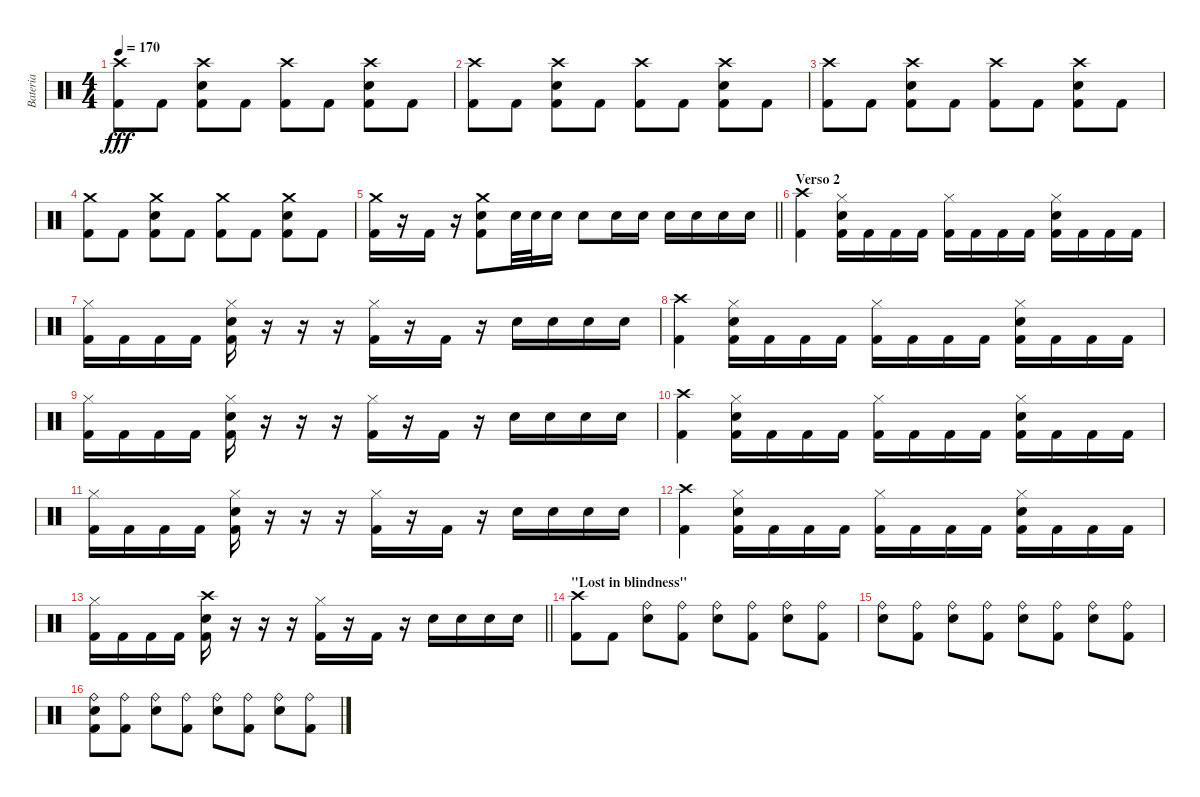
\track ("Bateria" "Bateria") {instrument percussion}
\staff {score}
\articulation defaults
\ts (4 4)
\tempo 170
\clef neutral
\ks c
("Crash high (hit)" "Kick (hit) 2").8{dy fff} "Kick (hit) 2".8 ("Crash high (hit)" "Electric Snare (hit)" "Kick (hit) 2").8 "Kick (hit) 2".8 ("Crash high (hit)" "Kick (hit) 2").8 "Kick (hit) 2".8 ("Crash high (hit)" "Electric Snare (hit)" "Kick (hit) 2").8 "Kick (hit) 2".8 |
("Crash high (hit)" "Kick (hit) 2").8 "Kick (hit) 2".8 ("Crash high (hit)" "Electric Snare (hit)" "Kick (hit) 2").8 "Kick (hit) 2".8 ("Crash high (hit)" "Kick (hit) 2").8 "Kick (hit) 2".8 ("Crash high (hit)" "Electric Snare (hit)" "Kick (hit) 2").8 "Kick (hit) 2".8 |
("Crash high (hit)" "Kick (hit) 2").8 "Kick (hit) 2".8 ("Crash high (hit)" "Electric Snare (hit)" "Kick (hit) 2").8 "Kick (hit) 2".8 ("Crash high (hit)" "Kick (hit) 2").8 "Kick (hit) 2".8 ("Crash high (hit)" "Electric Snare (hit)" "Kick (hit) 2").8 "Kick (hit) 2".8 |
("Crash medium (hit)" "Kick (hit) 2").8 "Kick (hit) 2".8 ("Crash medium (hit)" "Electric Snare (hit)" "Kick (hit) 2").8 "Kick (hit) 2".8 ("Crash medium (hit)" "Kick (hit) 2").8 "Kick (hit) 2".8 ("Crash medium (hit)" "Electric Snare (hit)" "Kick (hit) 2").8 "Kick (hit) 2".8 |
\barLineRight lightlight
("Crash medium (hit)" "Kick (hit) 2").16 r.16 "Kick (hit) 2".16 r.16 ("Crash medium (hit)" "Electric Snare (hit)" "Kick (hit) 2").8 "Electric Snare (hit)".32 "Electric Snare (hit)".32 "Electric Snare (hit)".16 "Electric Snare (hit)".8 "Electric Snare (hit)".16 "Electric Snare (hit)".16 "Electric Snare (hit)".16 "Electric Snare (hit)".16 "Electric Snare (hit)".16 "Electric Snare (hit)".16 |
\section ("" "Verso 2")
("Crash high (hit)" "Kick (hit) 2").4 ("Hi-Hat (closed)" "Electric Snare (hit)" "Kick (hit) 2").16 "Kick (hit) 2".16 "Kick (hit) 2".16 "Kick (hit) 2".16 ("Hi-Hat (closed)" "Kick (hit) 2").16 "Kick (hit) 2".16 "Kick (hit) 2".16 "Kick (hit) 2".16 ("Hi-Hat (closed)" "Electric Snare (hit)" "Kick (hit) 2").16 "Kick (hit) 2".16 "Kick (hit) 2".16 "Kick (hit) 2".16 |
("Hi-Hat (closed)" "Kick (hit) 2").16 "Kick (hit) 2".16 "Kick (hit) 2".16 "Kick (hit) 2".16 ("Hi-Hat (closed)" "Electric Snare (hit)" "Kick (hit) 2").16 r.16 r.16 r.16 ("Hi-Hat (closed)" "Kick (hit) 2").16 r.16 "Kick (hit) 2".16 r.16 "Electric Snare (hit)".16 "Electric Snare (hit)".16 "Electric Snare (hit)".16 "Electric Snare (hit)".16 |
("Crash high (hit)" "Kick (hit) 2").4 ("Hi-Hat (closed)" "Electric Snare (hit)" "Kick (hit) 2").16 "Kick (hit) 2".16 "Kick (hit) 2".16 "Kick (hit) 2".16 ("Hi-Hat (closed)" "Kick (hit) 2").16 "Kick (hit) 2".16 "Kick (hit) 2".16 "Kick (hit) 2".16 ("Hi-Hat (closed)" "Electric Snare (hit)" "Kick (hit) 2").16 "Kick (hit) 2".16 "Kick (hit) 2".16 "Kick (hit) 2".16 |
("Hi-Hat (closed)" "Kick (hit) 2").16 "Kick (hit) 2".16 "Kick (hit) 2".16 "Kick (hit) 2".16 ("Hi-Hat (closed)" "Electric Snare (hit)" "Kick (hit) 2").16 r.16 r.16 r.16 ("Hi-Hat (closed)" "Kick (hit) 2").16 r.16 "Kick (hit) 2".16 r.16 "Electric Snare (hit)".16 "Electric Snare (hit)".16 "Electric Snare (hit)".16 "Electric Snare (hit)".16 |
("Crash high (hit)" "Kick (hit) 2").4 ("Hi-Hat (closed)" "Electric Snare (hit)" "Kick (hit) 2").16 "Kick (hit) 2".16 "Kick (hit) 2".16 "Kick (hit) 2".16 ("Hi-Hat (closed)" "Kick (hit) 2").16 "Kick (hit) 2".16 "Kick (hit) 2".16 "Kick (hit) 2".16 ("Hi-Hat (closed)" "Electric Snare (hit)" "Kick (hit) 2").16 "Kick (hit) 2".16 "Kick (hit) 2".16 "Kick (hit) 2".16 |
("Hi-Hat (closed)" "Kick (hit) 2").16 "Kick (hit) 2".16 "Kick (hit) 2".16 "Kick (hit) 2".16 ("Hi-Hat (closed)" "Electric Snare (hit)" "Kick (hit) 2").16 r.16 r.16 r.16 ("Hi-Hat (closed)" "Kick (hit) 2").16 r.16 "Kick (hit) 2".16 r.16 "Electric Snare (hit)".16 "Electric Snare (hit)".16 "Electric Snare (hit)".16 "Electric Snare (hit)".16 |
("Crash high (hit)" "Kick (hit) 2").4 ("Hi-Hat (closed)" "Electric Snare (hit)" "Kick (hit) 2").16 "Kick (hit) 2".16 "Kick (hit) 2".16 "Kick (hit) 2".16 ("Hi-Hat (closed)" "Kick (hit) 2").16 "Kick (hit) 2".16 "Kick (hit) 2".16 "Kick (hit) 2".16 ("Hi-Hat (closed)" "Electric Snare (hit)" "Kick (hit) 2").16 "Kick (hit) 2".16 "Kick (hit) 2".16 "Kick (hit) 2".16 |
\barLineRight lightlight
("Hi-Hat (closed)" "Kick (hit) 2").16 "Kick (hit) 2".16 "Kick (hit) 2".16 "Kick (hit) 2".16 ("Crash high (hit)" "Electric Snare (hit)" "Kick (hit) 2").16 r.16 r.16 r.16 ("Hi-Hat (closed)" "Kick (hit) 2").16 r.16 "Kick (hit) 2".16 r.16 "Electric Snare (hit)".16 "Electric Snare (hit)".16 "Electric Snare (hit)".16 "Electric Snare (hit)".16 |
\section ("" "\"Lost in blindness\"")
("Crash high (hit)" "Kick (hit) 2").8 "Kick (hit) 2".8 ("Ride (bell)" "Electric Snare (hit)").8 ("Ride (bell)" "Kick (hit) 2").8 ("Ride (bell)" "Electric Snare (hit)").8 ("Ride (bell)" "Kick (hit) 2").8 ("Ride (bell)" "Electric Snare (hit)").8 ("Ride (bell)" "Kick (hit) 2").8 |
("Ride (bell)" "Electric Snare (hit)").8 ("Ride (bell)" "Kick (hit) 2").8 ("Ride (bell)" "Electric Snare (hit)").8 ("Ride (bell)" "Kick (hit) 2").8 ("Ride (bell)" "Electric Snare (hit)").8 ("Ride (bell)" "Kick (hit) 2").8 ("Ride (bell)" "Electric Snare (hit)").8 ("Ride (bell)" "Kick (hit) 2").8 |
("Ride (bell)" "Electric Snare (hit)" "Kick (hit) 2").8 ("Ride (bell)" "Kick (hit) 2").8 ("Ride (bell)" "Electric Snare (hit)").8 ("Ride (bell)" "Kick (hit) 2").8 ("Ride (bell)" "Electric Snare (hit)").8 ("Ride (bell)" "Kick (hit) 2").8 ("Ride (bell)" "Electric Snare (hit)").8 ("Ride (bell)" "Kick (hit) 2").8
